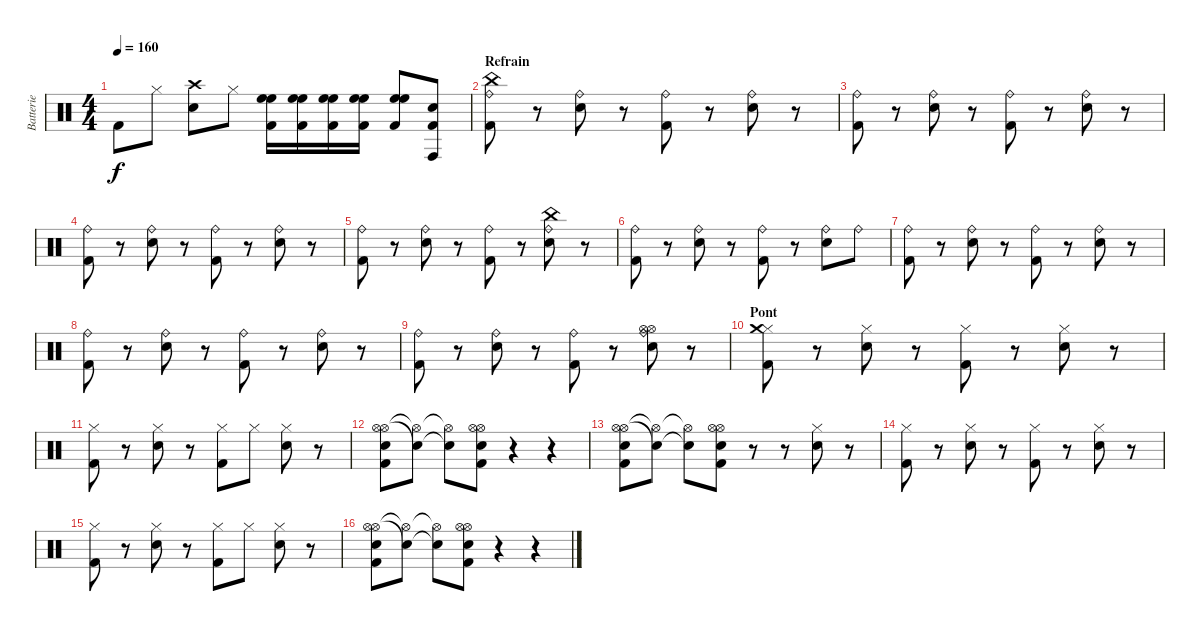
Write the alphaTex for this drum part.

\track ("Batterie" "Batterie") {instrument percussion}
\staff {score}
\articulation defaults
\ts (4 4)
\tempo 160
\clef neutral
\ks c "Kick (hit) 2".8{dy f} "Hi-Hat (closed)".8
("Crash high (hit)" "Snare (hit) 2").8 "Hi-Hat (closed)".8 ("High Floor Tom (hit)" "High Floor Tom (hit)" "Kick (hit) 2").16 ("High Floor Tom (hit)" "High Floor Tom (hit)" "Kick (hit) 2").16 ("High Floor Tom (hit)" "High Floor Tom (hit)" "Kick (hit) 2").16 ("High Floor Tom (hit)" "High Floor Tom (hit)" "Kick (hit) 2").16 ("High Floor Tom (hit)" "High Floor Tom (hit)" "Kick (hit) 2").8 ("Conga high (hit)" "Snare (hit) 2" "Kick (hit) 2").8 |
\section ("" "Refrain")
("China (hit)" "Ride (bell)" "Kick (hit) 2").8 r.8 ("Ride (bell)" "Snare (hit) 2").8 r.8 ("Ride (bell)" "Kick (hit) 2").8 r.8 ("Ride (bell)" "Snare (hit) 2").8 r.8 |
("Ride (bell)" "Kick (hit) 2").8 r.8 ("Ride (bell)" "Snare (hit) 2").8 r.8 ("Ride (bell)" "Kick (hit) 2").8 r.8 ("Ride (bell)" "Snare (hit) 2").8 r.8 |
("Ride (bell)" "Kick (hit) 2").8 r.8 ("Ride (bell)" "Snare (hit) 2").8 r.8 ("Ride (bell)" "Kick (hit) 2").8 r.8 ("Ride (bell)" "Snare (hit) 2").8 r.8 |
("Ride (bell)" "Kick (hit) 2").8 r.8 ("Ride (bell)" "Snare (hit) 2").8 r.8 ("Ride (bell)" "Kick (hit) 2").8 r.8 ("China (hit)" "Ride (bell)" "Snare (hit) 2").8 r.8 |
("Ride (bell)" "Kick (hit) 2").8 r.8 ("Ride (bell)" "Snare (hit) 2").8 r.8 ("Ride (bell)" "Kick (hit) 2").8 r.8 ("Ride (bell)" "Snare (hit) 2").8 "Ride (bell)".8 |
("Ride (bell)" "Kick (hit) 2").8 r.8 ("Ride (bell)" "Snare (hit) 2").8 r.8 ("Ride (bell)" "Kick (hit) 2").8 r.8 ("Ride (bell)" "Snare (hit) 2").8 r.8 |
("Ride (bell)" "Kick (hit) 2").8 r.8 ("Ride (bell)" "Snare (hit) 2").8 r.8 ("Ride (bell)" "Kick (hit) 2").8 r.8 ("Ride (bell)" "Snare (hit) 2").8 r.8 |
("Ride (bell)" "Kick (hit) 2").8 r.8 ("Ride (bell)" "Snare (hit) 2").8 r.8 ("Ride (bell)" "Kick (hit) 2").8 r.8 ("Hi-Hat (open)" "Hi-Hat (open)" "Ride (bell)" "Snare (hit) 2").8 r.8 |
\section ("" "Pont")
("Hi-Hat (closed)" "Crash medium (hit)" "Kick (hit) 2").8 r.8 ("Hi-Hat (closed)" "Snare (hit) 2").8 r.8 ("Hi-Hat (closed)" "Kick (hit) 2").8 r.8 ("Hi-Hat (closed)" "Snare (hit) 2").8 r.8 |
("Hi-Hat (closed)" "Kick (hit) 2").8 r.8 ("Hi-Hat (closed)" "Snare (hit) 2").8 r.8 ("Hi-Hat (closed)" "Kick (hit) 2").8 "Hi-Hat (closed)".8 ("Hi-Hat (closed)" "Snare (hit) 2").8 r.8 |
("Hi-Hat (open)" "Hi-Hat (open)" "Snare (hit) 2" "Kick (hit) 2").8 ("Hi-Hat (open)"{t} "Snare (hit)"{t}).8 ("Hi-Hat (open)"{t} "Snare (hit)"{t}).8 ("Hi-Hat (open)" "Hi-Hat (open)" "Snare (hit) 2" "Kick (hit) 2").8 r.4 r.4 |
("Hi-Hat (open)" "Hi-Hat (open)" "Snare (hit) 2" "Kick (hit) 2").8 ("Hi-Hat (open)"{t} "Snare (hit)"{t}).8 ("Hi-Hat (open)"{t} "Snare (hit)"{t}).8 ("Hi-Hat (open)" "Hi-Hat (open)" "Snare (hit) 2" "Kick (hit) 2").8 r.8 r.8 ("Hi-Hat (closed)" "Snare (hit) 2").8 r.8 |
("Hi-Hat (closed)" "Kick (hit) 2").8 r.8 ("Hi-Hat (closed)" "Snare (hit) 2").8 r.8 ("Hi-Hat (closed)" "Kick (hit) 2").8 r.8 ("Hi-Hat (closed)" "Snare (hit) 2").8 r.8 |
("Hi-Hat (closed)" "Kick (hit) 2").8 r.8 ("Hi-Hat (closed)" "Snare (hit) 2").8 r.8 ("Hi-Hat (closed)" "Kick (hit) 2").8 "Hi-Hat (closed)".8 ("Hi-Hat (closed)" "Snare (hit) 2").8 r.8 |
("Hi-Hat (open)" "Hi-Hat (open)" "Snare (hit) 2" "Kick (hit) 2").8 ("Hi-Hat (open)"{t} "Snare (hit)"{t}).8 ("Hi-Hat (open)"{t} "Snare (hit)"{t}).8 ("Hi-Hat (open)" "Hi-Hat (open)" "Snare (hit) 2" "Kick (hit) 2").8 r.4 r.4
